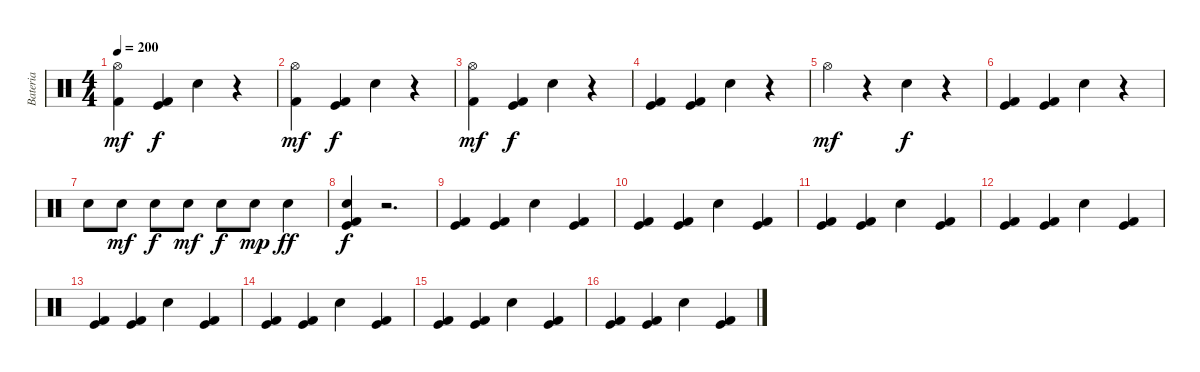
\track ("Bateria" "Bateria") {instrument percussion}
\staff {score}
\articulation defaults
\ts (4 4)
\tempo 200
\clef neutral
\ks c
("Hi-Hat (open)" "Kick (hit) 2").4{dy mf} ("Kick (hit)" "Kick (hit) 2").4{dy f} "Electric Snare (hit)".4 r.4 |
("Hi-Hat (open)" "Kick (hit) 2").4{dy mf} ("Kick (hit)" "Kick (hit) 2").4{dy f} "Electric Snare (hit)".4 r.4 |
("Hi-Hat (open)" "Kick (hit) 2").4{dy mf} ("Kick (hit)" "Kick (hit) 2").4{dy f} "Electric Snare (hit)".4 r.4 |
("Kick (hit)" "Kick (hit) 2").4 ("Kick (hit)" "Kick (hit) 2").4 "Electric Snare (hit)".4 r.4 |
"Hi-Hat (open)".4{dy mf} r.4 "Electric Snare (hit)".4{dy f} r.4 |
("Kick (hit)" "Kick (hit) 2").4 ("Kick (hit)" "Kick (hit) 2").4 "Electric Snare (hit)".4 r.4 |
"Electric Snare (hit)".8 "Electric Snare (hit)".8{dy mf} "Electric Snare (hit)".8{dy f} "Electric Snare (hit)".8{dy mf} "Electric Snare (hit)".8{dy f} "Electric Snare (hit)".8{dy mp} "Electric Snare (hit)".4{dy ff} |
("Electric Snare (hit)" "Kick (hit) 2" "Kick (hit)").4{dy f} r.2{d} |
("Kick (hit)" "Kick (hit) 2").4 ("Kick (hit)" "Kick (hit) 2").4 "Electric Snare (hit)".4 ("Kick (hit)" "Kick (hit) 2").4 |
("Kick (hit)" "Kick (hit) 2").4 ("Kick (hit)" "Kick (hit) 2").4 "Electric Snare (hit)".4 ("Kick (hit)" "Kick (hit) 2").4 |
("Kick (hit)" "Kick (hit) 2").4 ("Kick (hit)" "Kick (hit) 2").4 "Electric Snare (hit)".4 ("Kick (hit)" "Kick (hit) 2").4 |
("Kick (hit)" "Kick (hit) 2").4 ("Kick (hit)" "Kick (hit) 2").4 "Electric Snare (hit)".4 ("Kick (hit)" "Kick (hit) 2").4 |
("Kick (hit)" "Kick (hit) 2").4 ("Kick (hit)" "Kick (hit) 2").4 "Electric Snare (hit)".4 ("Kick (hit)" "Kick (hit) 2").4 |
("Kick (hit)" "Kick (hit) 2").4 ("Kick (hit)" "Kick (hit) 2").4 "Electric Snare (hit)".4 ("Kick (hit)" "Kick (hit) 2").4 |
("Kick (hit)" "Kick (hit) 2").4 ("Kick (hit)" "Kick (hit) 2").4 "Electric Snare (hit)".4 ("Kick (hit)" "Kick (hit) 2").4 |
("Kick (hit)" "Kick (hit) 2").4 ("Kick (hit)" "Kick (hit) 2").4 "Electric Snare (hit)".4 ("Kick (hit)" "Kick (hit) 2").4
